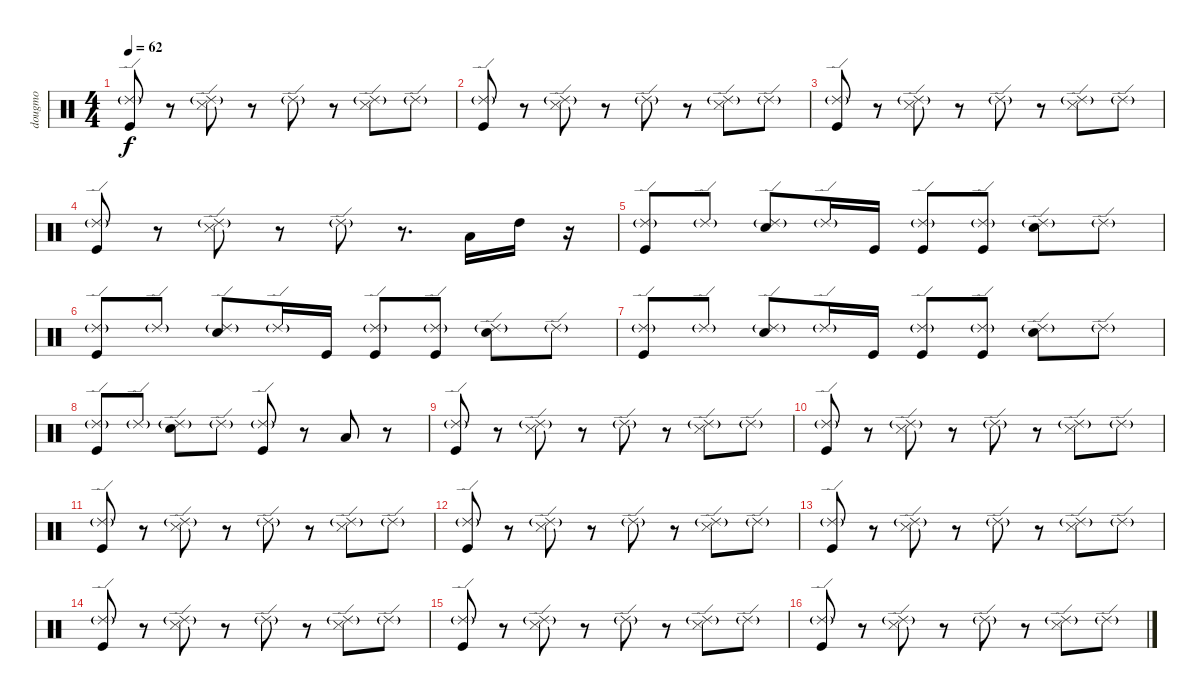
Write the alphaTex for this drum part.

\track ("dougmo" "dougmo") {instrument percussion}
\staff {score}
\articulation defaults
\ts (4 4)
\tempo 62
\clef neutral
\ks c
("Kick (hit)" "Ride (edge) 2"{g}).8{dy f} r.8 ("Snare (side stick) 3" "Ride (edge) 2"{g}).8 r.8 "Ride (edge) 2"{g}.8 r.8 ("Snare (side stick) 3" "Ride (edge) 2"{g}).8 "Ride (edge) 2"{g}.8 |
("Kick (hit)" "Ride (edge) 2"{g}).8 r.8 ("Snare (side stick) 3" "Ride (edge) 2"{g}).8 r.8 "Ride (edge) 2"{g}.8 r.8 ("Snare (side stick) 3" "Ride (edge) 2"{g}).8 "Ride (edge) 2"{g}.8 |
("Kick (hit)" "Ride (edge) 2"{g}).8 r.8 ("Snare (side stick) 3" "Ride (edge) 2"{g}).8 r.8 "Ride (edge) 2"{g}.8 r.8 ("Snare (side stick) 3" "Ride (edge) 2"{g}).8 "Ride (edge) 2"{g}.8 |
("Ride (edge) 2"{g} "Kick (hit)").8 r.8 ("Ride (edge) 2"{g} "Snare (side stick) 3").8 r.8 "Ride (edge) 2"{g}.8 r.8{d} "Low Tom (hit)".16 "High Tom (hit)".16 r.16 |
("Kick (hit)" "Ride (edge) 2"{g}).8 "Ride (edge) 2"{g}.8 ("Snare (hit) 2" "Ride (edge) 2"{g}).8 "Ride (edge) 2"{g}.16 "Kick (hit)".16 ("Kick (hit)" "Ride (edge) 2"{g}).8 ("Kick (hit)" "Ride (edge) 2"{g}).8 ("Snare (hit) 2" "Ride (edge) 2"{g}).8 "Ride (edge) 2"{g}.8 |
("Kick (hit)" "Ride (edge) 2"{g}).8 "Ride (edge) 2"{g}.8 ("Snare (hit) 2" "Ride (edge) 2"{g}).8 "Ride (edge) 2"{g}.16 "Kick (hit)".16 ("Kick (hit)" "Ride (edge) 2"{g}).8 ("Kick (hit)" "Ride (edge) 2"{g}).8 ("Snare (hit) 2" "Ride (edge) 2"{g}).8 "Ride (edge) 2"{g}.8 |
("Kick (hit)" "Ride (edge) 2"{g}).8 "Ride (edge) 2"{g}.8 ("Snare (hit) 2" "Ride (edge) 2"{g}).8 "Ride (edge) 2"{g}.16 "Kick (hit)".16 ("Kick (hit)" "Ride (edge) 2"{g}).8 ("Kick (hit)" "Ride (edge) 2"{g}).8 ("Snare (hit) 2" "Ride (edge) 2"{g}).8 "Ride (edge) 2"{g}.8 |
("Ride (edge) 2"{g} "Kick (hit)").8 "Ride (edge) 2"{g}.8 ("Ride (edge) 2"{g} "Snare (hit) 2").8 "Ride (edge) 2"{g}.8 ("Ride (edge) 2"{g} "Kick (hit)").8 r.8 "Low Tom (hit)".8 r.8 |
("Kick (hit)" "Ride (edge) 2"{g}).8 r.8 ("Snare (side stick) 3" "Ride (edge) 2"{g}).8 r.8 "Ride (edge) 2"{g}.8 r.8 ("Snare (side stick) 3" "Ride (edge) 2"{g}).8 "Ride (edge) 2"{g}.8 |
("Kick (hit)" "Ride (edge) 2"{g}).8 r.8 ("Snare (side stick) 3" "Ride (edge) 2"{g}).8 r.8 "Ride (edge) 2"{g}.8 r.8 ("Snare (side stick) 3" "Ride (edge) 2"{g}).8 "Ride (edge) 2"{g}.8 |
("Kick (hit)" "Ride (edge) 2"{g}).8 r.8 ("Snare (side stick) 3" "Ride (edge) 2"{g}).8 r.8 "Ride (edge) 2"{g}.8 r.8 ("Snare (side stick) 3" "Ride (edge) 2"{g}).8 "Ride (edge) 2"{g}.8 |
("Kick (hit)" "Ride (edge) 2"{g}).8 r.8 ("Snare (side stick) 3" "Ride (edge) 2"{g}).8 r.8 "Ride (edge) 2"{g}.8 r.8 ("Snare (side stick) 3" "Ride (edge) 2"{g}).8 "Ride (edge) 2"{g}.8 |
("Kick (hit)" "Ride (edge) 2"{g}).8 r.8 ("Snare (side stick) 3" "Ride (edge) 2"{g}).8 r.8 "Ride (edge) 2"{g}.8 r.8 ("Snare (side stick) 3" "Ride (edge) 2"{g}).8 "Ride (edge) 2"{g}.8 |
("Kick (hit)" "Ride (edge) 2"{g}).8 r.8 ("Snare (side stick) 3" "Ride (edge) 2"{g}).8 r.8 "Ride (edge) 2"{g}.8 r.8 ("Snare (side stick) 3" "Ride (edge) 2"{g}).8 "Ride (edge) 2"{g}.8 |
("Kick (hit)" "Ride (edge) 2"{g}).8 r.8 ("Snare (side stick) 3" "Ride (edge) 2"{g}).8 r.8 "Ride (edge) 2"{g}.8 r.8 ("Snare (side stick) 3" "Ride (edge) 2"{g}).8 "Ride (edge) 2"{g}.8 |
("Kick (hit)" "Ride (edge) 2"{g}).8 r.8 ("Snare (side stick) 3" "Ride (edge) 2"{g}).8 r.8 "Ride (edge) 2"{g}.8 r.8 ("Snare (side stick) 3" "Ride (edge) 2"{g}).8 "Ride (edge) 2"{g}.8
